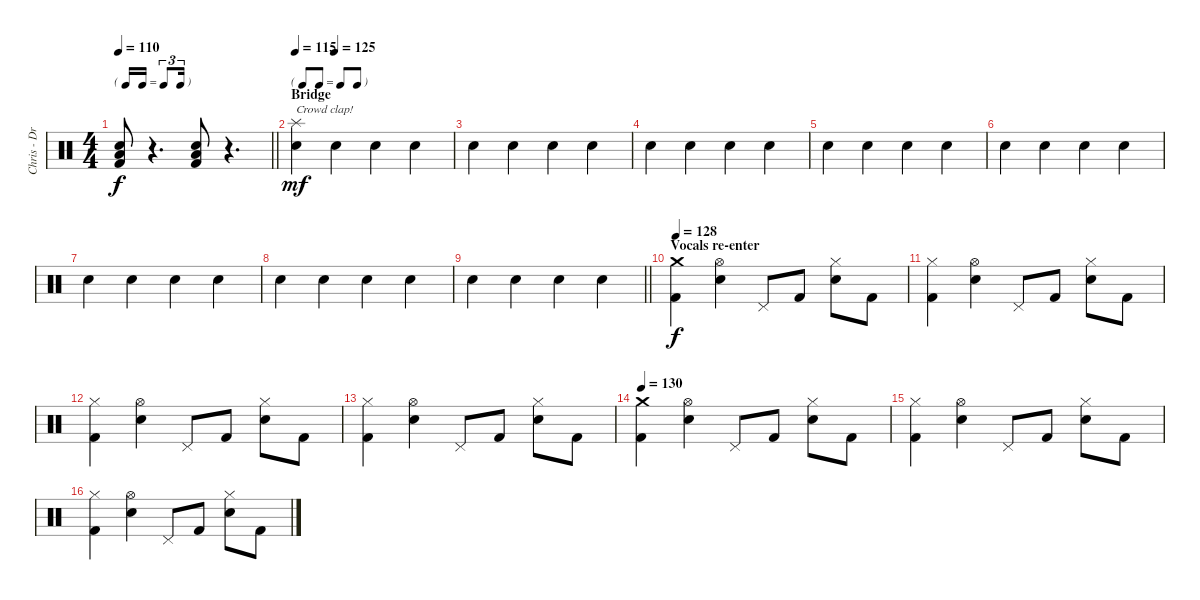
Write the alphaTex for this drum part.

\track ("Chris - Drums" "Chris - Dr") {instrument percussion}
\staff {score}
\articulation defaults
\ts (4 4)
\tf triplet16th
\tempo 110
\clef neutral
\barLineRight lightlight
\ks c
("Low Floor Tom (hit)" "Electric Snare (hit)" "Kick (hit) 2").8{dy f} r.4{d} ("Low Floor Tom (hit)" "Electric Snare (hit)" "Kick (hit) 2").8 r.4{d volume 6} |
\tf none
\section ("" "Bridge")
\tempo 115
\tempo (125 0.25)
("Splash (hit)" "Hand Clap (hit)").4{txt "Crowd clap!" dy mf volume 11} "Hand Clap (hit)".4 "Hand Clap (hit)".4 "Hand Clap (hit)".4 |
"Hand Clap (hit)".4 "Hand Clap (hit)".4 "Hand Clap (hit)".4 "Hand Clap (hit)".4 |
"Hand Clap (hit)".4 "Hand Clap (hit)".4 "Hand Clap (hit)".4 "Hand Clap (hit)".4 |
"Hand Clap (hit)".4 "Hand Clap (hit)".4 "Hand Clap (hit)".4 "Hand Clap (hit)".4 |
"Hand Clap (hit)".4 "Hand Clap (hit)".4 "Hand Clap (hit)".4 "Hand Clap (hit)".4 |
"Hand Clap (hit)".4 "Hand Clap (hit)".4 "Hand Clap (hit)".4 "Hand Clap (hit)".4 |
"Hand Clap (hit)".4 "Hand Clap (hit)".4 "Hand Clap (hit)".4 "Hand Clap (hit)".4 |
\barLineRight lightlight "Hand Clap (hit)".4 "Hand Clap (hit)".4 "Hand Clap (hit)".4 "Hand Clap (hit)".4
|
\section ("" "Vocals re-enter")
\tempo 128
("Crash medium (hit)" "Kick (hit) 2").4{dy f} ("Hi-Hat (open)" "Electric Snare (hit)").4 "Pedal Hi-Hat (hit)".8 "Kick (hit) 2".8 ("Hi-Hat (closed)" "Electric Snare (hit)").8 "Kick (hit) 2".8 |
("Hi-Hat (closed)" "Kick (hit) 2").4 ("Hi-Hat (open)" "Electric Snare (hit)").4 "Pedal Hi-Hat (hit)".8 "Kick (hit) 2".8 ("Hi-Hat (closed)" "Electric Snare (hit)").8 "Kick (hit) 2".8 |
("Hi-Hat (closed)" "Kick (hit) 2").4 ("Hi-Hat (open)" "Electric Snare (hit)").4 "Pedal Hi-Hat (hit)".8 "Kick (hit) 2".8 ("Hi-Hat (closed)" "Electric Snare (hit)").8 "Kick (hit) 2".8 |
("Hi-Hat (closed)" "Kick (hit) 2").4 ("Hi-Hat (open)" "Electric Snare (hit)").4 "Pedal Hi-Hat (hit)".8 "Kick (hit) 2".8 ("Hi-Hat (closed)" "Electric Snare (hit)").8 "Kick (hit) 2".8 |
\tempo 130
("Crash medium (hit)" "Kick (hit) 2").4 ("Hi-Hat (open)" "Electric Snare (hit)").4 "Pedal Hi-Hat (hit)".8 "Kick (hit) 2".8 ("Hi-Hat (closed)" "Electric Snare (hit)").8 "Kick (hit) 2".8 |
("Hi-Hat (closed)" "Kick (hit) 2").4 ("Hi-Hat (open)" "Electric Snare (hit)").4 "Pedal Hi-Hat (hit)".8 "Kick (hit) 2".8 ("Hi-Hat (closed)" "Electric Snare (hit)").8 "Kick (hit) 2".8 |
("Hi-Hat (closed)" "Kick (hit) 2").4 ("Hi-Hat (open)" "Electric Snare (hit)").4 "Pedal Hi-Hat (hit)".8 "Kick (hit) 2".8 ("Hi-Hat (closed)" "Electric Snare (hit)").8 "Kick (hit) 2".8
